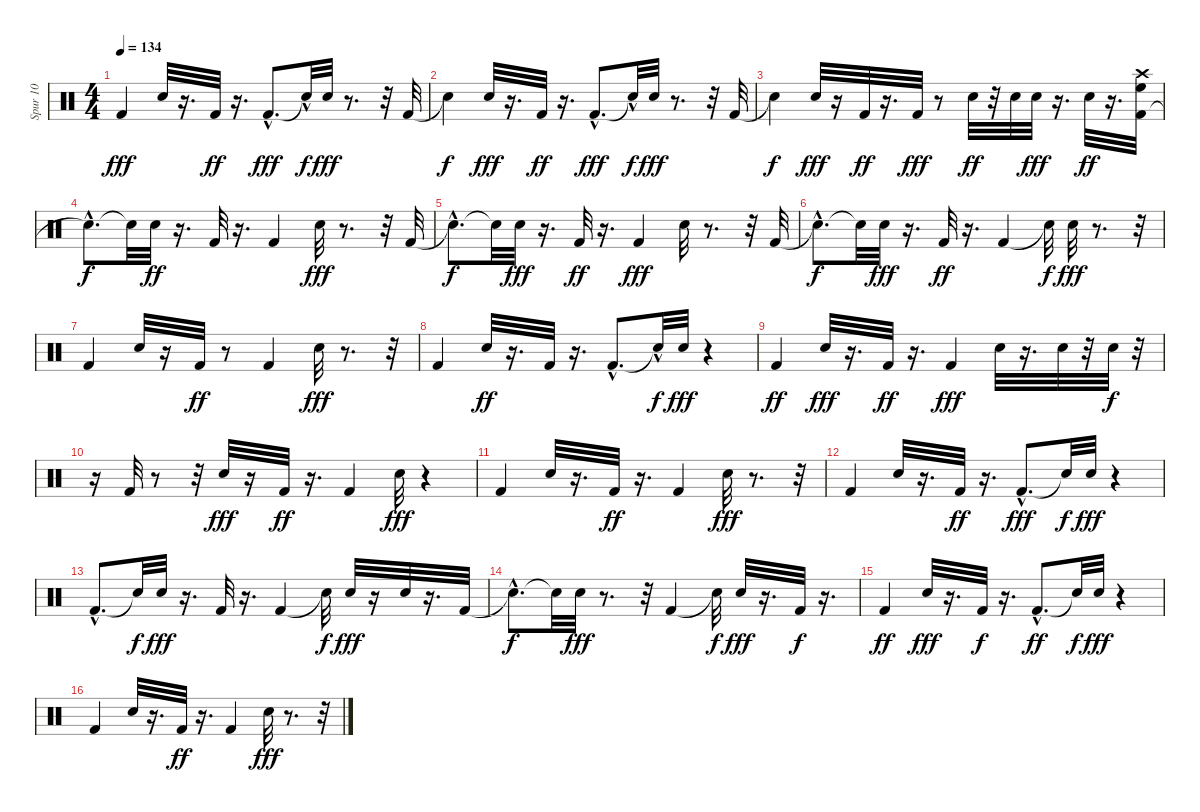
\track ("Spur 10" "Spur 10") {instrument percussion}
\staff {score}
\articulation defaults
\ts (4 4)
\tempo 134
\clef neutral
\ks c "Kick (hit) 2".4{dy fff} "Electric Snare (hit)".32
r.16{d} "Kick (hit) 2".32{dy ff} r.16{d} "Kick (hit) 2"{hac}.8{d dy fff} "Snare (hit)"{hac t}.32{dy f} "Electric Snare (hit)".32{dy fff} r.8{d} r.32 "Kick (hit) 2".32 |
"Snare (hit)"{t}.4{dy f} "Electric Snare (hit)".32{dy fff} r.16{d} "Kick (hit) 2".32{dy ff} r.16{d} "Kick (hit) 2"{hac}.8{d dy fff} "Snare (hit)"{hac t}.32{dy f} "Electric Snare (hit)".32{dy fff} r.8{d} r.32 "Kick (hit) 2".32 |
"Snare (hit)"{t}.4{dy f} "Electric Snare (hit)".32{dy fff} r.16 "Kick (hit) 2".32{dy ff} r.16{d} "Kick (hit) 2".32{dy fff} r.8 "Electric Snare (hit)".32{dy ff} r.32 "Electric Snare (hit)".32 "Electric Snare (hit)".32{dy fff} r.16{d} "Electric Snare (hit)".32{dy ff} r.16{d} ("Kick (hit) 2" "Crash high (hit)" "High Floor Tom (hit)").32 |
"Snare (hit)"{hac t}.8{d dy f} "Snare (hit)"{t}.32 "Electric Snare (hit)".32{dy ff} r.16{d} "Kick (hit) 2".32 r.16{d} "Kick (hit) 2".4 "Electric Snare (hit)".32{dy fff} r.8{d} r.32 "Kick (hit) 2".32 |
"Snare (hit)"{hac t}.8{d dy f} "Snare (hit)"{t}.32 "Electric Snare (hit)".32{dy fff} r.16{d} "Kick (hit) 2".32{dy ff} r.16{d} "Kick (hit) 2".4{dy fff} "Electric Snare (hit)".32 r.8{d} r.32 "Kick (hit) 2".32 |
"Snare (hit)"{hac t}.8{d dy f} "Snare (hit)"{t}.32 "Electric Snare (hit)".32{dy fff} r.16{d} "Kick (hit) 2".32{dy ff} r.16{d} "Kick (hit) 2".4 "Snare (hit)"{t}.32{dy f} "Electric Snare (hit)".32{dy fff} r.8{d} r.32 |
"Kick (hit) 2".4 "Electric Snare (hit)".32 r.16 "Kick (hit) 2".32{dy ff} r.8 "Kick (hit) 2".4 "Electric Snare (hit)".32{dy fff} r.8{d} r.32 |
"Kick (hit) 2".4 "Electric Snare (hit)".32{dy ff} r.16{d} "Kick (hit) 2".32 r.16{d} "Kick (hit) 2"{hac}.8{d} "Snare (hit)"{hac t}.32{dy f} "Electric Snare (hit)".32{dy fff} r.4 |
"Kick (hit) 2".4{dy ff} "Electric Snare (hit)".32{dy fff} r.16{d} "Kick (hit) 2".32{dy ff} r.16{d} "Kick (hit) 2".4{dy fff} "Electric Snare (hit)".32 r.16{d} "Electric Snare (hit)".32 r.32 "Electric Snare (hit)".32{dy f} r.32 |
r.16 "Kick (hit) 2".32 r.8 r.32 "Electric Snare (hit)".32{dy fff} r.16 "Kick (hit) 2".32{dy ff} r.16{d} "Kick (hit) 2".4 "Electric Snare (hit)".32{dy fff} r.4 |
"Kick (hit) 2".4 "Electric Snare (hit)".32 r.16{d} "Kick (hit) 2".32{dy ff} r.16{d} "Kick (hit) 2".4 "Electric Snare (hit)".32{dy fff} r.8{d} r.32 |
"Kick (hit) 2".4 "Electric Snare (hit)".32 r.16{d} "Kick (hit) 2".32{dy ff} r.16{d} "Kick (hit) 2"{hac}.8{d dy fff} "Snare (hit)"{t}.32{dy f} "Electric Snare (hit)".32{dy fff} r.4 |
"Kick (hit) 2"{hac}.8{d} "Snare (hit)"{t}.32{dy f} "Electric Snare (hit)".32{dy fff} r.16{d} "Kick (hit) 2".32 r.16{d} "Kick (hit) 2".4 "Snare (hit)"{t}.32{dy f} "Electric Snare (hit)".32{dy fff} r.16 "Electric Snare (hit)".32 r.16{d} "Kick (hit) 2".32 |
"Snare (hit)"{hac t}.8{d dy f} "Snare (hit)"{t}.32 "Electric Snare (hit)".32{dy fff} r.8{d} r.32 "Kick (hit) 2".4 "Snare (hit)"{t}.32{dy f} "Electric Snare (hit)".32{dy fff} r.16{d} "Kick (hit) 2".32{dy f} r.16{d} |
"Kick (hit) 2".4{dy ff} "Electric Snare (hit)".32{dy fff} r.16{d} "Kick (hit) 2".32{dy f} r.16{d} "Kick (hit) 2"{hac}.8{d dy ff} "Snare (hit)"{t}.32{dy f} "Electric Snare (hit)".32{dy fff} r.4 |
"Kick (hit) 2".4 "Electric Snare (hit)".32 r.16{d} "Kick (hit) 2".32{dy ff} r.16{d} "Kick (hit) 2".4 "Electric Snare (hit)".32{dy fff} r.8{d} r.32
